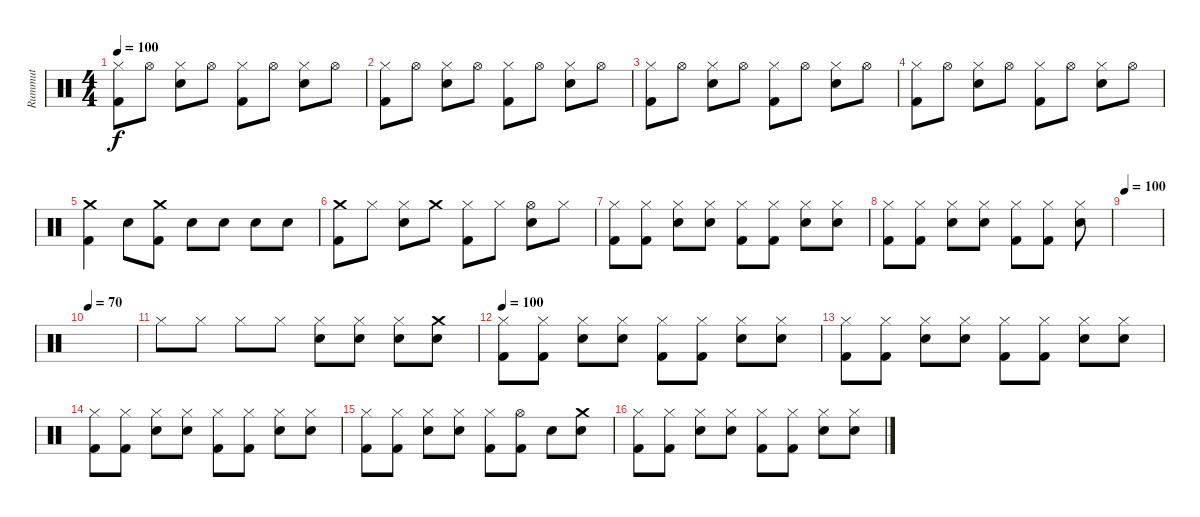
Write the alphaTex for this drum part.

\track ("Rummut" "Rummut") {instrument percussion}
\staff {score}
\articulation defaults
\ts (4 4)
\tempo 100
\clef neutral
\ks c
("Hi-Hat (closed)" "Kick (hit) 2").8{dy f} "Hi-Hat (open)".8 ("Hi-Hat (closed)" "Snare (hit) 2").8 "Hi-Hat (open)".8 ("Hi-Hat (closed)" "Kick (hit) 2").8 "Hi-Hat (open)".8 ("Hi-Hat (closed)" "Snare (hit) 2").8 "Hi-Hat (open)".8 |
("Hi-Hat (closed)" "Kick (hit) 2").8 "Hi-Hat (open)".8 ("Hi-Hat (closed)" "Snare (hit) 2").8 "Hi-Hat (open)".8 ("Hi-Hat (closed)" "Kick (hit) 2").8 "Hi-Hat (open)".8 ("Hi-Hat (closed)" "Snare (hit) 2").8 "Hi-Hat (open)".8 |
("Hi-Hat (closed)" "Kick (hit) 2").8 "Hi-Hat (open)".8 ("Hi-Hat (closed)" "Snare (hit) 2").8 "Hi-Hat (open)".8 ("Hi-Hat (closed)" "Kick (hit) 2").8 "Hi-Hat (open)".8 ("Hi-Hat (closed)" "Snare (hit) 2").8 "Hi-Hat (open)".8 |
("Hi-Hat (closed)" "Kick (hit) 2").8 "Hi-Hat (open)".8 ("Hi-Hat (closed)" "Snare (hit) 2").8 "Hi-Hat (open)".8 ("Hi-Hat (closed)" "Kick (hit) 2").8 "Hi-Hat (open)".8 ("Hi-Hat (closed)" "Snare (hit) 2").8 "Hi-Hat (open)".8 |
("Crash medium (hit)" "Kick (hit) 2").4 "Snare (hit) 2".8 ("Crash medium (hit)" "Kick (hit) 2").8 "Snare (hit) 2".8 "Snare (hit) 2".8 "Snare (hit) 2".8 "Snare (hit) 2".8 |
("Crash medium (hit)" "Kick (hit) 2").8 "Hi-Hat (closed)".8 ("Hi-Hat (closed)" "Snare (hit) 2").8 "Crash medium (hit)".8 ("Hi-Hat (closed)" "Kick (hit) 2").8 "Hi-Hat (closed)".8 ("Hi-Hat (open)" "Snare (hit) 2").8 "Hi-Hat (closed)".8 |
("Hi-Hat (closed)" "Kick (hit) 2").8 ("Hi-Hat (closed)" "Kick (hit) 2").8 ("Hi-Hat (closed)" "Snare (hit) 2").8 ("Hi-Hat (closed)" "Snare (hit) 2").8 ("Hi-Hat (closed)" "Kick (hit) 2").8 ("Hi-Hat (closed)" "Kick (hit) 2").8 ("Hi-Hat (closed)" "Snare (hit) 2").8 ("Hi-Hat (closed)" "Snare (hit) 2").8 |
("Hi-Hat (closed)" "Kick (hit) 2").8 ("Hi-Hat (closed)" "Kick (hit) 2").8 ("Hi-Hat (closed)" "Snare (hit) 2").8 ("Hi-Hat (closed)" "Snare (hit) 2").8 ("Hi-Hat (closed)" "Kick (hit) 2").8 ("Hi-Hat (closed)" "Kick (hit) 2").8 ("Hi-Hat (closed)" "Snare (hit) 2").8 |
\tempo 100
|
\tempo 70
|
"Hi-Hat (closed)".8 "Hi-Hat (closed)".8 "Hi-Hat (closed)".8 "Hi-Hat (closed)".8 ("Hi-Hat (closed)" "Snare (hit) 2").8 ("Hi-Hat (closed)" "Snare (hit) 2").8 ("Hi-Hat (closed)" "Snare (hit) 2").8 ("Crash medium (hit)" "Snare (hit) 2").8 |
\tempo 100
("Hi-Hat (closed)" "Kick (hit) 2").8 ("Hi-Hat (closed)" "Kick (hit) 2").8 ("Hi-Hat (closed)" "Snare (hit) 2").8 ("Hi-Hat (closed)" "Snare (hit) 2").8 ("Hi-Hat (closed)" "Kick (hit) 2").8 ("Hi-Hat (closed)" "Kick (hit) 2").8 ("Hi-Hat (closed)" "Snare (hit) 2").8 ("Hi-Hat (closed)" "Snare (hit) 2").8 |
("Hi-Hat (closed)" "Kick (hit) 2").8 ("Hi-Hat (closed)" "Kick (hit) 2").8 ("Hi-Hat (closed)" "Snare (hit) 2").8 ("Hi-Hat (closed)" "Snare (hit) 2").8 ("Hi-Hat (closed)" "Kick (hit) 2").8 ("Hi-Hat (closed)" "Kick (hit) 2").8 ("Hi-Hat (closed)" "Snare (hit) 2").8 ("Hi-Hat (closed)" "Snare (hit) 2").8 |
("Hi-Hat (closed)" "Kick (hit) 2").8 ("Hi-Hat (closed)" "Kick (hit) 2").8 ("Hi-Hat (closed)" "Snare (hit) 2").8 ("Hi-Hat (closed)" "Snare (hit) 2").8 ("Hi-Hat (closed)" "Kick (hit) 2").8 ("Hi-Hat (closed)" "Kick (hit) 2").8 ("Hi-Hat (closed)" "Snare (hit) 2").8 ("Hi-Hat (closed)" "Snare (hit) 2").8 |
("Hi-Hat (closed)" "Kick (hit) 2").8 ("Hi-Hat (closed)" "Kick (hit) 2").8 ("Hi-Hat (closed)" "Snare (hit) 2").8 ("Hi-Hat (closed)" "Snare (hit) 2").8 ("Hi-Hat (closed)" "Kick (hit) 2").8 ("Hi-Hat (open)" "Kick (hit) 2").8 "Snare (hit) 2".8 ("Crash medium (hit)" "Snare (hit) 2").8 |
("Hi-Hat (closed)" "Kick (hit) 2").8 ("Hi-Hat (closed)" "Kick (hit) 2").8 ("Hi-Hat (closed)" "Snare (hit) 2").8 ("Hi-Hat (closed)" "Snare (hit) 2").8 ("Hi-Hat (closed)" "Kick (hit) 2").8 ("Hi-Hat (closed)" "Kick (hit) 2").8 ("Hi-Hat (closed)" "Snare (hit) 2").8 ("Hi-Hat (closed)" "Snare (hit) 2").8
